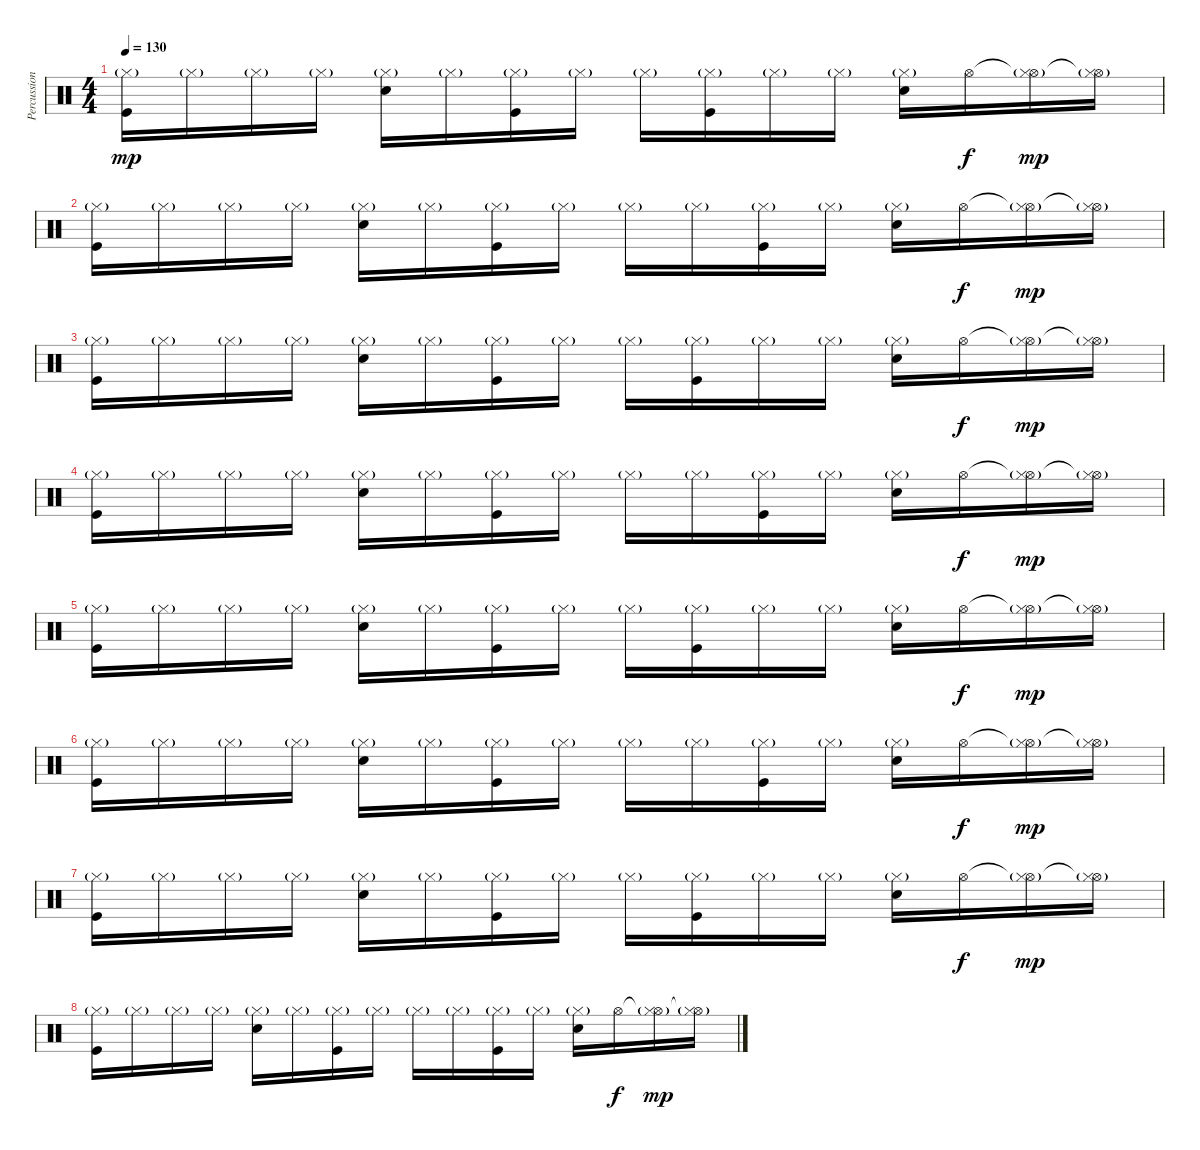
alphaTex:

\track ("Percussion" "Percussion") {instrument percussion}
\staff {score}
\articulation defaults
\ts (4 4)
\tempo 130
\clef neutral
\ks c
("Hi-Hat (closed)"{g} "Kick (hit)").16{dy mp} "Hi-Hat (closed)"{g}.16 "Hi-Hat (closed)"{g}.16 "Hi-Hat (closed)"{g}.16 ("Hi-Hat (closed)"{g} "Hand Clap (hit)").16 "Hi-Hat (closed)"{g}.16 ("Hi-Hat (closed)"{g} "Kick (hit)").16 "Hi-Hat (closed)"{g}.16 "Hi-Hat (closed)"{g}.16 ("Hi-Hat (closed)"{g} "Kick (hit)").16 "Hi-Hat (closed)"{g}.16 "Hi-Hat (closed)"{g}.16 ("Hi-Hat (closed)"{g} "Hand Clap (hit)").16 "Hi-Hat (open)".16{dy f} ("Hi-Hat (open)"{t} "Hi-Hat (closed)"{g}).16{dy mp} ("Hi-Hat (open)"{t} "Hi-Hat (closed)"{g}).16 |
("Hi-Hat (closed)"{g} "Kick (hit)").16 "Hi-Hat (closed)"{g}.16 "Hi-Hat (closed)"{g}.16 "Hi-Hat (closed)"{g}.16 ("Hi-Hat (closed)"{g} "Hand Clap (hit)").16 "Hi-Hat (closed)"{g}.16 ("Hi-Hat (closed)"{g} "Kick (hit)").16 "Hi-Hat (closed)"{g}.16 "Hi-Hat (closed)"{g}.16 "Hi-Hat (closed)"{g}.16 ("Hi-Hat (closed)"{g} "Kick (hit)").16 "Hi-Hat (closed)"{g}.16 ("Hi-Hat (closed)"{g} "Hand Clap (hit)").16 "Hi-Hat (open)".16{dy f} ("Hi-Hat (open)"{t} "Hi-Hat (closed)"{g}).16{dy mp} ("Hi-Hat (open)"{t} "Hi-Hat (closed)"{g}).16 |
("Hi-Hat (closed)"{g} "Kick (hit)").16 "Hi-Hat (closed)"{g}.16 "Hi-Hat (closed)"{g}.16 "Hi-Hat (closed)"{g}.16 ("Hi-Hat (closed)"{g} "Hand Clap (hit)").16 "Hi-Hat (closed)"{g}.16 ("Hi-Hat (closed)"{g} "Kick (hit)").16 "Hi-Hat (closed)"{g}.16 "Hi-Hat (closed)"{g}.16 ("Hi-Hat (closed)"{g} "Kick (hit)").16 "Hi-Hat (closed)"{g}.16 "Hi-Hat (closed)"{g}.16 ("Hi-Hat (closed)"{g} "Hand Clap (hit)").16 "Hi-Hat (open)".16{dy f} ("Hi-Hat (open)"{t} "Hi-Hat (closed)"{g}).16{dy mp} ("Hi-Hat (open)"{t} "Hi-Hat (closed)"{g}).16 |
("Hi-Hat (closed)"{g} "Kick (hit)").16 "Hi-Hat (closed)"{g}.16 "Hi-Hat (closed)"{g}.16 "Hi-Hat (closed)"{g}.16 ("Hi-Hat (closed)"{g} "Hand Clap (hit)").16 "Hi-Hat (closed)"{g}.16 ("Hi-Hat (closed)"{g} "Kick (hit)").16 "Hi-Hat (closed)"{g}.16 "Hi-Hat (closed)"{g}.16 "Hi-Hat (closed)"{g}.16 ("Hi-Hat (closed)"{g} "Kick (hit)").16 "Hi-Hat (closed)"{g}.16 ("Hi-Hat (closed)"{g} "Hand Clap (hit)").16 "Hi-Hat (open)".16{dy f} ("Hi-Hat (open)"{t} "Hi-Hat (closed)"{g}).16{dy mp} ("Hi-Hat (open)"{t} "Hi-Hat (closed)"{g}).16 |
("Hi-Hat (closed)"{g} "Kick (hit)").16 "Hi-Hat (closed)"{g}.16 "Hi-Hat (closed)"{g}.16 "Hi-Hat (closed)"{g}.16 ("Hi-Hat (closed)"{g} "Hand Clap (hit)").16 "Hi-Hat (closed)"{g}.16 ("Hi-Hat (closed)"{g} "Kick (hit)").16 "Hi-Hat (closed)"{g}.16 "Hi-Hat (closed)"{g}.16 ("Hi-Hat (closed)"{g} "Kick (hit)").16 "Hi-Hat (closed)"{g}.16 "Hi-Hat (closed)"{g}.16 ("Hi-Hat (closed)"{g} "Hand Clap (hit)").16 "Hi-Hat (open)".16{dy f} ("Hi-Hat (open)"{t} "Hi-Hat (closed)"{g}).16{dy mp} ("Hi-Hat (open)"{t} "Hi-Hat (closed)"{g}).16 |
("Hi-Hat (closed)"{g} "Kick (hit)").16 "Hi-Hat (closed)"{g}.16 "Hi-Hat (closed)"{g}.16 "Hi-Hat (closed)"{g}.16 ("Hi-Hat (closed)"{g} "Hand Clap (hit)").16 "Hi-Hat (closed)"{g}.16 ("Hi-Hat (closed)"{g} "Kick (hit)").16 "Hi-Hat (closed)"{g}.16 "Hi-Hat (closed)"{g}.16 "Hi-Hat (closed)"{g}.16 ("Hi-Hat (closed)"{g} "Kick (hit)").16 "Hi-Hat (closed)"{g}.16 ("Hi-Hat (closed)"{g} "Hand Clap (hit)").16 "Hi-Hat (open)".16{dy f} ("Hi-Hat (open)"{t} "Hi-Hat (closed)"{g}).16{dy mp} ("Hi-Hat (open)"{t} "Hi-Hat (closed)"{g}).16 |
("Hi-Hat (closed)"{g} "Kick (hit)").16 "Hi-Hat (closed)"{g}.16 "Hi-Hat (closed)"{g}.16 "Hi-Hat (closed)"{g}.16 ("Hi-Hat (closed)"{g} "Hand Clap (hit)").16 "Hi-Hat (closed)"{g}.16 ("Hi-Hat (closed)"{g} "Kick (hit)").16 "Hi-Hat (closed)"{g}.16 "Hi-Hat (closed)"{g}.16 ("Hi-Hat (closed)"{g} "Kick (hit)").16 "Hi-Hat (closed)"{g}.16 "Hi-Hat (closed)"{g}.16 ("Hi-Hat (closed)"{g} "Hand Clap (hit)").16 "Hi-Hat (open)".16{dy f} ("Hi-Hat (open)"{t} "Hi-Hat (closed)"{g}).16{dy mp} ("Hi-Hat (open)"{t} "Hi-Hat (closed)"{g}).16 |
("Hi-Hat (closed)"{g} "Kick (hit)").16 "Hi-Hat (closed)"{g}.16 "Hi-Hat (closed)"{g}.16 "Hi-Hat (closed)"{g}.16 ("Hi-Hat (closed)"{g} "Hand Clap (hit)").16 "Hi-Hat (closed)"{g}.16 ("Hi-Hat (closed)"{g} "Kick (hit)").16 "Hi-Hat (closed)"{g}.16 "Hi-Hat (closed)"{g}.16 "Hi-Hat (closed)"{g}.16 ("Hi-Hat (closed)"{g} "Kick (hit)").16 "Hi-Hat (closed)"{g}.16 ("Hi-Hat (closed)"{g} "Hand Clap (hit)").16 "Hi-Hat (open)".16{dy f} ("Hi-Hat (open)"{t} "Hi-Hat (closed)"{g}).16{dy mp} ("Hi-Hat (open)"{t} "Hi-Hat (closed)"{g}).16
